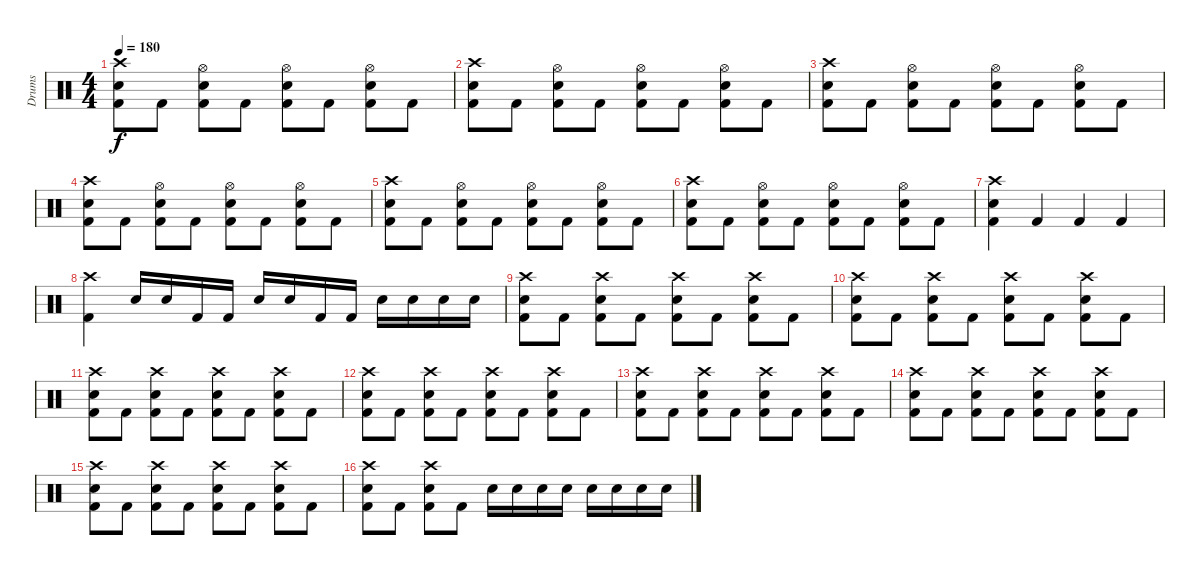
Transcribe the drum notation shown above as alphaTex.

\track ("Drums" "Drums") {instrument percussion}
\staff {score}
\articulation defaults
\ts (4 4)
\tempo 180
\clef neutral
\ks c
("Crash high (hit)" "Snare (hit) 2" "Kick (hit) 2").8{dy f} "Kick (hit) 2".8 ("Hi-Hat (open)" "Snare (hit) 2" "Kick (hit) 2").8 "Kick (hit) 2".8 ("Hi-Hat (open)" "Snare (hit) 2" "Kick (hit) 2").8 "Kick (hit) 2".8 ("Hi-Hat (open)" "Snare (hit) 2" "Kick (hit) 2").8 "Kick (hit) 2".8 |
("Crash high (hit)" "Snare (hit) 2" "Kick (hit) 2").8 "Kick (hit) 2".8 ("Hi-Hat (open)" "Snare (hit) 2" "Kick (hit) 2").8 "Kick (hit) 2".8 ("Hi-Hat (open)" "Snare (hit) 2" "Kick (hit) 2").8 "Kick (hit) 2".8 ("Hi-Hat (open)" "Snare (hit) 2" "Kick (hit) 2").8 "Kick (hit) 2".8 |
("Crash high (hit)" "Snare (hit) 2" "Kick (hit) 2").8 "Kick (hit) 2".8 ("Hi-Hat (open)" "Snare (hit) 2" "Kick (hit) 2").8 "Kick (hit) 2".8 ("Hi-Hat (open)" "Snare (hit) 2" "Kick (hit) 2").8 "Kick (hit) 2".8 ("Hi-Hat (open)" "Snare (hit) 2" "Kick (hit) 2").8 "Kick (hit) 2".8 |
("Crash high (hit)" "Snare (hit) 2" "Kick (hit) 2").8 "Kick (hit) 2".8 ("Hi-Hat (open)" "Snare (hit) 2" "Kick (hit) 2").8 "Kick (hit) 2".8 ("Hi-Hat (open)" "Snare (hit) 2" "Kick (hit) 2").8 "Kick (hit) 2".8 ("Hi-Hat (open)" "Snare (hit) 2" "Kick (hit) 2").8 "Kick (hit) 2".8 |
("Crash high (hit)" "Snare (hit) 2" "Kick (hit) 2").8 "Kick (hit) 2".8 ("Hi-Hat (open)" "Snare (hit) 2" "Kick (hit) 2").8 "Kick (hit) 2".8 ("Hi-Hat (open)" "Snare (hit) 2" "Kick (hit) 2").8 "Kick (hit) 2".8 ("Hi-Hat (open)" "Snare (hit) 2" "Kick (hit) 2").8 "Kick (hit) 2".8 |
("Crash high (hit)" "Snare (hit) 2" "Kick (hit) 2").8 "Kick (hit) 2".8 ("Hi-Hat (open)" "Snare (hit) 2" "Kick (hit) 2").8 "Kick (hit) 2".8 ("Hi-Hat (open)" "Snare (hit) 2" "Kick (hit) 2").8 "Kick (hit) 2".8 ("Hi-Hat (open)" "Snare (hit) 2" "Kick (hit) 2").8 "Kick (hit) 2".8 |
("Crash high (hit)" "Kick (hit) 2" "Snare (hit) 2").4 "Kick (hit) 2".4 "Kick (hit) 2".4 "Kick (hit) 2".4 |
("Kick (hit) 2" "Crash high (hit)").4 "Snare (hit) 2".16 "Snare (hit) 2".16 "Kick (hit) 2".16 "Kick (hit) 2".16 "Snare (hit) 2".16 "Snare (hit) 2".16 "Kick (hit) 2".16 "Kick (hit) 2".16 "Snare (hit) 2".16 "Snare (hit) 2".16 "Snare (hit) 2".16 "Snare (hit) 2".16 |
("Snare (hit) 2" "Kick (hit) 2" "Crash high (hit)").8 "Kick (hit) 2".8 ("Snare (hit) 2" "Kick (hit) 2" "Crash high (hit)").8 "Kick (hit) 2".8 ("Snare (hit) 2" "Kick (hit) 2" "Crash high (hit)").8 "Kick (hit) 2".8 ("Snare (hit) 2" "Kick (hit) 2" "Crash high (hit)").8 "Kick (hit) 2".8 |
("Snare (hit) 2" "Kick (hit) 2" "Crash high (hit)").8 "Kick (hit) 2".8 ("Snare (hit) 2" "Kick (hit) 2" "Crash high (hit)").8 "Kick (hit) 2".8 ("Snare (hit) 2" "Kick (hit) 2" "Crash high (hit)").8 "Kick (hit) 2".8 ("Snare (hit) 2" "Kick (hit) 2" "Crash high (hit)").8 "Kick (hit) 2".8 |
("Snare (hit) 2" "Kick (hit) 2" "Crash high (hit)").8 "Kick (hit) 2".8 ("Snare (hit) 2" "Kick (hit) 2" "Crash high (hit)").8 "Kick (hit) 2".8 ("Snare (hit) 2" "Kick (hit) 2" "Crash high (hit)").8 "Kick (hit) 2".8 ("Snare (hit) 2" "Kick (hit) 2" "Crash high (hit)").8 "Kick (hit) 2".8 |
("Snare (hit) 2" "Kick (hit) 2" "Crash high (hit)").8 "Kick (hit) 2".8 ("Snare (hit) 2" "Kick (hit) 2" "Crash high (hit)").8 "Kick (hit) 2".8 ("Snare (hit) 2" "Kick (hit) 2" "Crash high (hit)").8 "Kick (hit) 2".8 ("Snare (hit) 2" "Kick (hit) 2" "Crash high (hit)").8 "Kick (hit) 2".8 |
("Snare (hit) 2" "Kick (hit) 2" "Crash high (hit)").8 "Kick (hit) 2".8 ("Snare (hit) 2" "Kick (hit) 2" "Crash high (hit)").8 "Kick (hit) 2".8 ("Snare (hit) 2" "Kick (hit) 2" "Crash high (hit)").8 "Kick (hit) 2".8 ("Snare (hit) 2" "Kick (hit) 2" "Crash high (hit)").8 "Kick (hit) 2".8 |
("Snare (hit) 2" "Kick (hit) 2" "Crash high (hit)").8 "Kick (hit) 2".8 ("Snare (hit) 2" "Kick (hit) 2" "Crash high (hit)").8 "Kick (hit) 2".8 ("Snare (hit) 2" "Kick (hit) 2" "Crash high (hit)").8 "Kick (hit) 2".8 ("Snare (hit) 2" "Kick (hit) 2" "Crash high (hit)").8 "Kick (hit) 2".8 |
("Snare (hit) 2" "Kick (hit) 2" "Crash high (hit)").8 "Kick (hit) 2".8 ("Snare (hit) 2" "Kick (hit) 2" "Crash high (hit)").8 "Kick (hit) 2".8 ("Snare (hit) 2" "Kick (hit) 2" "Crash high (hit)").8 "Kick (hit) 2".8 ("Snare (hit) 2" "Kick (hit) 2" "Crash high (hit)").8 "Kick (hit) 2".8 |
("Snare (hit) 2" "Kick (hit) 2" "Crash high (hit)").8 "Kick (hit) 2".8 ("Snare (hit) 2" "Kick (hit) 2" "Crash high (hit)").8 "Kick (hit) 2".8 "Snare (hit) 2".16 "Snare (hit) 2".16 "Snare (hit) 2".16 "Snare (hit) 2".16 "Snare (hit) 2".16 "Snare (hit) 2".16 "Snare (hit) 2".16 "Snare (hit) 2".16
